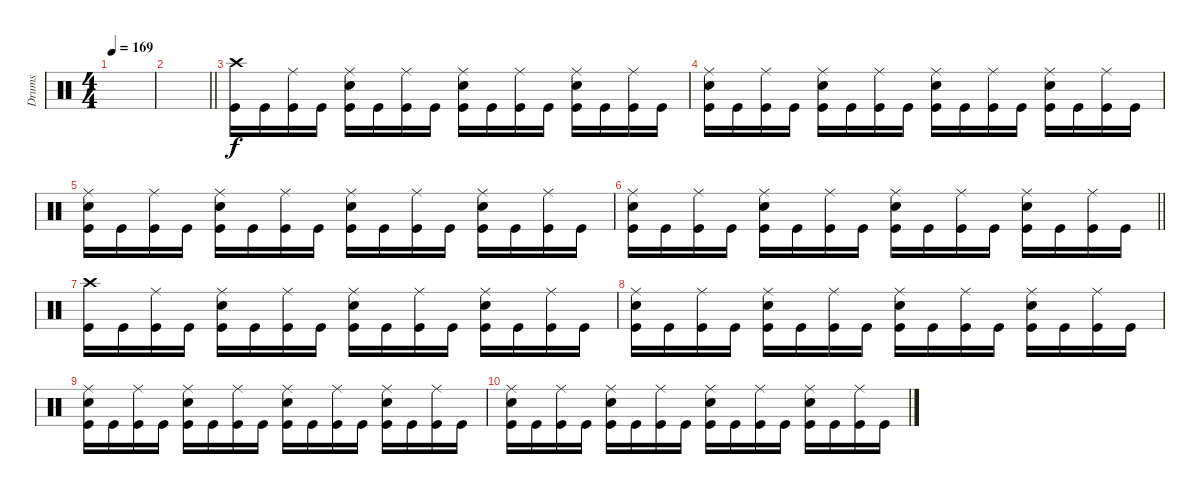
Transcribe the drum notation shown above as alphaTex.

\track ("Drums" "Drums") {instrument percussion}
\staff
\articulation defaults
\ts (4 4)
\tempo 169
\clef neutral
\ks c
|
\barLineRight lightlight
|
("Crash high (hit)" "Kick (hit)").16 "Kick (hit)".16 ("Ride (middle)" "Kick (hit)").16 "Kick (hit)".16 ("Ride (middle)" "Electric Snare (hit)" "Kick (hit)").16 "Kick (hit)".16 ("Ride (middle)" "Kick (hit)").16 "Kick (hit)".16 ("Ride (middle)" "Electric Snare (hit)" "Kick (hit)").16 "Kick (hit)".16 ("Ride (middle)" "Kick (hit)").16 "Kick (hit)".16 ("Ride (middle)" "Electric Snare (hit)" "Kick (hit)").16 "Kick (hit)".16 ("Ride (middle)" "Kick (hit)").16 "Kick (hit)".16 |
("Ride (middle)" "Electric Snare (hit)" "Kick (hit)").16 "Kick (hit)".16 ("Ride (middle)" "Kick (hit)").16 "Kick (hit)".16 ("Ride (middle)" "Electric Snare (hit)" "Kick (hit)").16 "Kick (hit)".16 ("Ride (middle)" "Kick (hit)").16 "Kick (hit)".16 ("Ride (middle)" "Electric Snare (hit)" "Kick (hit)").16 "Kick (hit)".16 ("Ride (middle)" "Kick (hit)").16 "Kick (hit)".16 ("Ride (middle)" "Electric Snare (hit)" "Kick (hit)").16 "Kick (hit)".16 ("Ride (middle)" "Kick (hit)").16 "Kick (hit)".16 |
("Ride (middle)" "Electric Snare (hit)" "Kick (hit)").16 "Kick (hit)".16 ("Ride (middle)" "Kick (hit)").16 "Kick (hit)".16 ("Ride (middle)" "Electric Snare (hit)" "Kick (hit)").16 "Kick (hit)".16 ("Ride (middle)" "Kick (hit)").16 "Kick (hit)".16 ("Ride (middle)" "Electric Snare (hit)" "Kick (hit)").16 "Kick (hit)".16 ("Ride (middle)" "Kick (hit)").16 "Kick (hit)".16 ("Ride (middle)" "Electric Snare (hit)" "Kick (hit)").16 "Kick (hit)".16 ("Ride (middle)" "Kick (hit)").16 "Kick (hit)".16 |
\barLineRight lightlight
("Ride (middle)" "Electric Snare (hit)" "Kick (hit)").16 "Kick (hit)".16 ("Ride (middle)" "Kick (hit)").16 "Kick (hit)".16 ("Ride (middle)" "Electric Snare (hit)" "Kick (hit)").16 "Kick (hit)".16 ("Ride (middle)" "Kick (hit)").16 "Kick (hit)".16 ("Ride (middle)" "Electric Snare (hit)" "Kick (hit)").16 "Kick (hit)".16 ("Ride (middle)" "Kick (hit)").16 "Kick (hit)".16 ("Ride (middle)" "Electric Snare (hit)" "Kick (hit)").16 "Kick (hit)".16 ("Ride (middle)" "Kick (hit)").16 "Kick (hit)".16 |
("Crash high (hit)" "Kick (hit)").16 "Kick (hit)".16 ("Ride (middle)" "Kick (hit)").16 "Kick (hit)".16 ("Ride (middle)" "Electric Snare (hit)" "Kick (hit)").16 "Kick (hit)".16 ("Ride (middle)" "Kick (hit)").16 "Kick (hit)".16 ("Ride (middle)" "Electric Snare (hit)" "Kick (hit)").16 "Kick (hit)".16 ("Ride (middle)" "Kick (hit)").16 "Kick (hit)".16 ("Ride (middle)" "Electric Snare (hit)" "Kick (hit)").16 "Kick (hit)".16 ("Ride (middle)" "Kick (hit)").16 "Kick (hit)".16 |
("Ride (middle)" "Electric Snare (hit)" "Kick (hit)").16 "Kick (hit)".16 ("Ride (middle)" "Kick (hit)").16 "Kick (hit)".16 ("Ride (middle)" "Electric Snare (hit)" "Kick (hit)").16 "Kick (hit)".16 ("Ride (middle)" "Kick (hit)").16 "Kick (hit)".16 ("Ride (middle)" "Electric Snare (hit)" "Kick (hit)").16 "Kick (hit)".16 ("Ride (middle)" "Kick (hit)").16 "Kick (hit)".16 ("Ride (middle)" "Electric Snare (hit)" "Kick (hit)").16 "Kick (hit)".16 ("Ride (middle)" "Kick (hit)").16 "Kick (hit)".16 |
("Ride (middle)" "Electric Snare (hit)" "Kick (hit)").16 "Kick (hit)".16 ("Ride (middle)" "Kick (hit)").16 "Kick (hit)".16 ("Ride (middle)" "Electric Snare (hit)" "Kick (hit)").16 "Kick (hit)".16 ("Ride (middle)" "Kick (hit)").16 "Kick (hit)".16 ("Ride (middle)" "Electric Snare (hit)" "Kick (hit)").16 "Kick (hit)".16 ("Ride (middle)" "Kick (hit)").16 "Kick (hit)".16 ("Ride (middle)" "Electric Snare (hit)" "Kick (hit)").16 "Kick (hit)".16 ("Ride (middle)" "Kick (hit)").16 "Kick (hit)".16 |
("Ride (middle)" "Electric Snare (hit)" "Kick (hit)").16 "Kick (hit)".16 ("Ride (middle)" "Kick (hit)").16 "Kick (hit)".16 ("Ride (middle)" "Electric Snare (hit)" "Kick (hit)").16 "Kick (hit)".16 ("Ride (middle)" "Kick (hit)").16 "Kick (hit)".16 ("Ride (middle)" "Electric Snare (hit)" "Kick (hit)").16 "Kick (hit)".16 ("Ride (middle)" "Kick (hit)").16 "Kick (hit)".16 ("Ride (middle)" "Electric Snare (hit)" "Kick (hit)").16 "Kick (hit)".16 ("Ride (middle)" "Kick (hit)").16 "Kick (hit)".16
